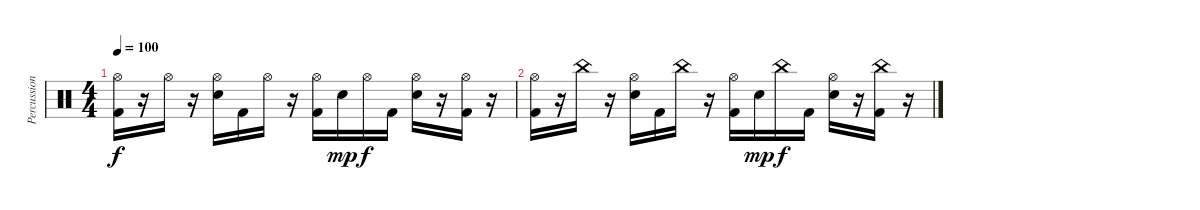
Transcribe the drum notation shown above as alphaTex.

\track ("Percussion" "Percussion") {instrument percussion}
\staff {score}
\articulation defaults
\ts (4 4)
\tempo 100
\clef neutral
\ks c
("Hi-Hat (open)" "Kick (hit) 2").16{dy f} r.16 "Hi-Hat (open)".16 r.16 ("Hi-Hat (open)" "Electric Snare (hit)").16 "Kick (hit) 2".16 "Hi-Hat (open)".16 r.16 ("Hi-Hat (open)" "Kick (hit) 2").16 "Electric Snare (hit)".16{dy mp} "Hi-Hat (open)".16{dy f} "Kick (hit) 2".16 ("Hi-Hat (open)" "Electric Snare (hit)").16 r.16 ("Hi-Hat (open)" "Kick (hit) 2").16 r.16 |
("Hi-Hat (open)" "Kick (hit) 2").16 r.16 "China (hit)".16 r.16 ("Hi-Hat (open)" "Electric Snare (hit)").16 "Kick (hit) 2".16 "China (hit)".16 r.16 ("Hi-Hat (open)" "Kick (hit) 2").16 "Electric Snare (hit)".16{dy mp} "China (hit)".16{dy f} "Kick (hit) 2".16 ("Hi-Hat (open)" "Electric Snare (hit)").16 r.16 ("China (hit)" "Kick (hit) 2").16 r.16
